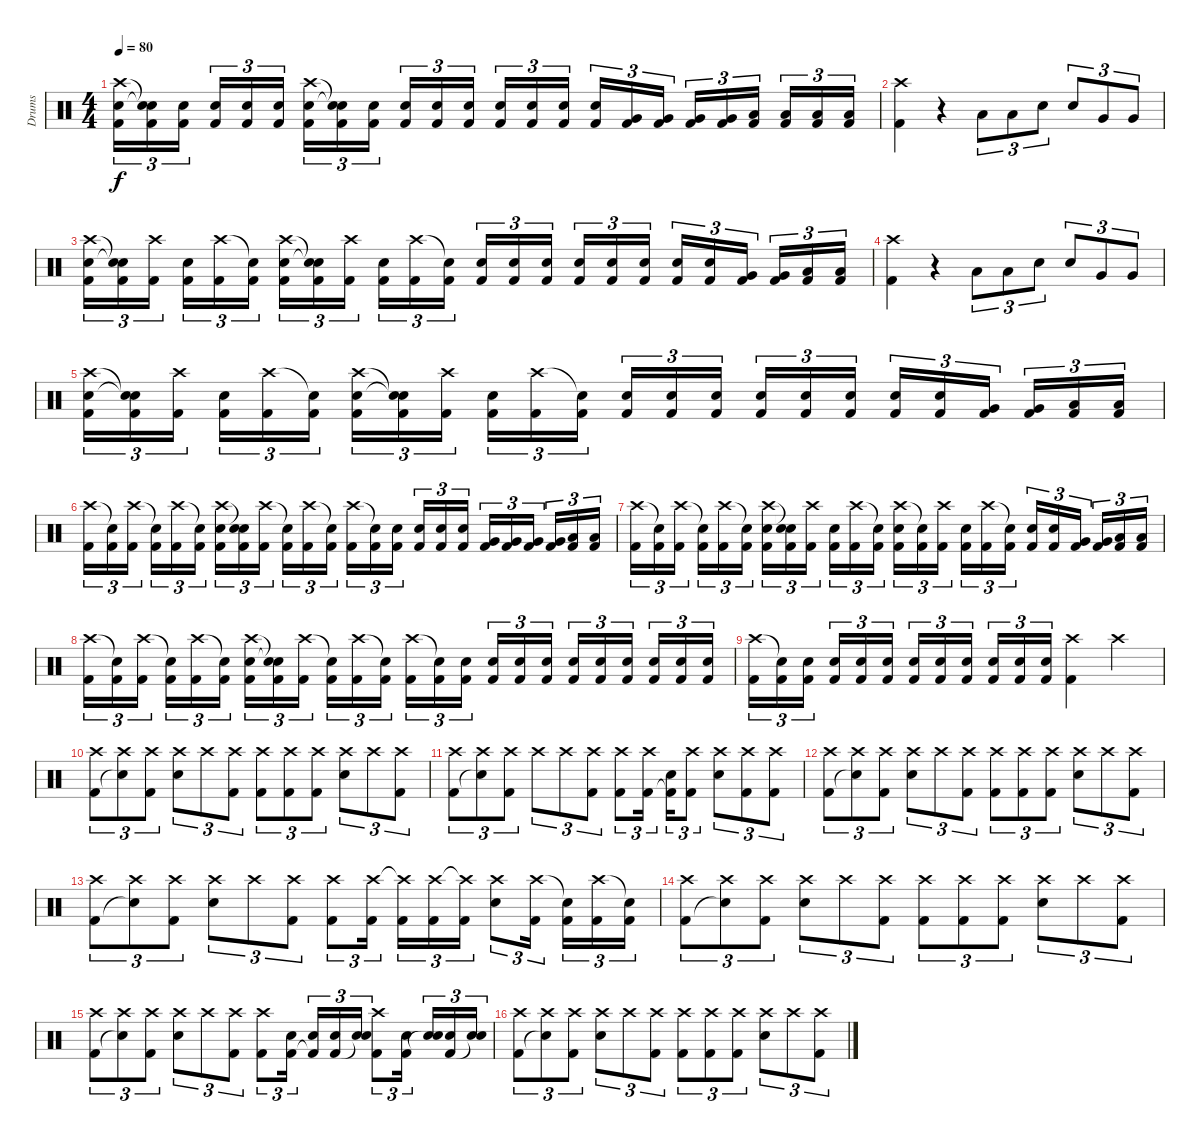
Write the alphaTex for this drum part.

\track ("Drums" "Drums") {instrument percussion}
\staff {score}
\articulation defaults
\ts (4 4)
\tempo 80
\clef neutral
\ks c
("Crash high (hit)" "Snare (hit) 2" "Kick (hit) 2").16{tu (3 2) dy f} ("Snare (hit)"{t} "Snare (hit)"{t} "Kick (hit) 2").16{tu (3 2)} ("Snare (hit) 2" "Kick (hit) 2").16{tu (3 2)} ("Snare (hit) 2" "Kick (hit) 2").16{tu (3 2)} ("Snare (hit) 2" "Kick (hit) 2").16{tu (3 2)} ("Snare (hit) 2" "Kick (hit) 2").16{tu (3 2)} ("Crash high (hit)" "Snare (hit) 2" "Kick (hit) 2").16{tu (3 2)} ("Snare (hit)"{t} "Snare (hit)"{t} "Kick (hit) 2").16{tu (3 2)} ("Snare (hit) 2" "Kick (hit) 2").16{tu (3 2)} ("Snare (hit) 2" "Kick (hit) 2").16{tu (3 2)} ("Snare (hit) 2" "Kick (hit) 2").16{tu (3 2)} ("Snare (hit) 2" "Kick (hit) 2").16{tu (3 2)} ("Snare (hit) 2" "Kick (hit) 2").16{tu (3 2)} ("Snare (hit) 2" "Kick (hit) 2").16{tu (3 2)} ("Snare (hit) 2" "Kick (hit) 2").16{tu (3 2)} ("Snare (hit) 2" "Kick (hit) 2").16{tu (3 2)} ("Very Low Tom (hit)" "Kick (hit) 2").16{tu (3 2)} ("Very Low Tom (hit)" "Kick (hit) 2").16{tu (3 2)} ("Very Low Tom (hit)" "Kick (hit) 2").16{tu (3 2)} ("Very Low Tom (hit)" "Kick (hit) 2").16{tu (3 2)} ("Low Floor Tom (hit)" "Kick (hit) 2").16{tu (3 2)} ("Low Floor Tom (hit)" "Kick (hit) 2").16{tu (3 2)} ("Low Floor Tom (hit)" "Kick (hit) 2").16{tu (3 2)} ("Low Floor Tom (hit)" "Kick (hit) 2").16{tu (3 2)} |
("Crash high (hit)" "Kick (hit) 2").4 r.4 "Low Tom (hit)".8{tu (3 2)} "Low Tom (hit)".8{tu (3 2)} "Snare (hit) 2".8{tu (3 2)} "Snare (hit) 2".8{tu (3 2)} "Very Low Tom (hit)".8{tu (3 2)} "Very Low Tom (hit)".8{tu (3 2)} |
("Crash high (hit)" "Snare (hit) 2" "Kick (hit) 2").16{tu (3 2)} ("Snare (hit)"{t} "Snare (hit)"{t} "Kick (hit) 2").16{tu (3 2)} ("Crash high (hit)" "Kick (hit) 2").16{tu (3 2)} ("Snare (hit) 2" "Kick (hit) 2").16{tu (3 2)} ("Crash high (hit)" "Kick (hit) 2").16{tu (3 2)} ("Snare (hit)"{t} "Kick (hit) 2").16{tu (3 2)} ("Crash high (hit)" "Snare (hit) 2" "Kick (hit) 2").16{tu (3 2)} ("Snare (hit)"{t} "Snare (hit)"{t} "Kick (hit) 2").16{tu (3 2)} ("Crash high (hit)" "Kick (hit) 2").16{tu (3 2)} ("Snare (hit) 2" "Kick (hit) 2").16{tu (3 2)} ("Crash high (hit)" "Kick (hit) 2").16{tu (3 2)} ("Snare (hit)"{t} "Kick (hit) 2").16{tu (3 2)} ("Snare (hit) 2" "Kick (hit) 2").16{tu (3 2)} ("Snare (hit) 2" "Kick (hit) 2").16{tu (3 2)} ("Snare (hit) 2" "Kick (hit) 2").16{tu (3 2)} ("Snare (hit) 2" "Kick (hit) 2").16{tu (3 2)} ("Snare (hit) 2" "Kick (hit) 2").16{tu (3 2)} ("Snare (hit) 2" "Kick (hit) 2").16{tu (3 2)} ("Snare (hit) 2" "Kick (hit) 2").16{tu (3 2)} ("Snare (hit) 2" "Kick (hit) 2").16{tu (3 2)} ("Very Low Tom (hit)" "Kick (hit) 2").16{tu (3 2)} ("Very Low Tom (hit)" "Kick (hit) 2").16{tu (3 2)} ("Low Floor Tom (hit)" "Kick (hit) 2").16{tu (3 2)} ("Low Floor Tom (hit)" "Kick (hit) 2").16{tu (3 2)} |
("Crash high (hit)" "Kick (hit) 2").4 r.4 "Low Tom (hit)".8{tu (3 2)} "Low Tom (hit)".8{tu (3 2)} "Snare (hit) 2".8{tu (3 2)} "Snare (hit) 2".8{tu (3 2)} "Very Low Tom (hit)".8{tu (3 2)} "Very Low Tom (hit)".8{tu (3 2)} |
("Crash high (hit)" "Snare (hit) 2" "Kick (hit) 2").16{tu (3 2)} ("Snare (hit)"{t} "Snare (hit)"{t} "Kick (hit) 2").16{tu (3 2)} ("Crash high (hit)" "Kick (hit) 2").16{tu (3 2)} ("Snare (hit) 2" "Kick (hit) 2").16{tu (3 2)} ("Crash high (hit)" "Kick (hit) 2").16{tu (3 2)} ("Snare (hit)"{t} "Kick (hit) 2").16{tu (3 2)} ("Crash high (hit)" "Snare (hit) 2" "Kick (hit) 2").16{tu (3 2)} ("Snare (hit)"{t} "Snare (hit)"{t} "Kick (hit) 2").16{tu (3 2)} ("Crash high (hit)" "Kick (hit) 2").16{tu (3 2)} ("Snare (hit) 2" "Kick (hit) 2").16{tu (3 2)} ("Crash high (hit)" "Kick (hit) 2").16{tu (3 2)} ("Snare (hit)"{t} "Kick (hit) 2").16{tu (3 2)} ("Snare (hit) 2" "Kick (hit) 2").16{tu (3 2)} ("Snare (hit) 2" "Kick (hit) 2").16{tu (3 2)} ("Snare (hit) 2" "Kick (hit) 2").16{tu (3 2)} ("Snare (hit) 2" "Kick (hit) 2").16{tu (3 2)} ("Snare (hit) 2" "Kick (hit) 2").16{tu (3 2)} ("Snare (hit) 2" "Kick (hit) 2").16{tu (3 2)} ("Snare (hit) 2" "Kick (hit) 2").16{tu (3 2)} ("Snare (hit) 2" "Kick (hit) 2").16{tu (3 2)} ("Very Low Tom (hit)" "Kick (hit) 2").16{tu (3 2)} ("Very Low Tom (hit)" "Kick (hit) 2").16{tu (3 2)} ("Low Floor Tom (hit)" "Kick (hit) 2").16{tu (3 2)} ("Low Floor Tom (hit)" "Kick (hit) 2").16{tu (3 2)} |
("Crash high (hit)" "Kick (hit) 2").16{tu (3 2)} ("Snare (hit)"{t} "Kick (hit) 2").16{tu (3 2)} ("Crash high (hit)" "Kick (hit) 2").16{tu (3 2)} ("Snare (hit)"{t} "Kick (hit) 2").16{tu (3 2)} ("Crash high (hit)" "Kick (hit) 2").16{tu (3 2)} ("Snare (hit)"{t} "Kick (hit) 2").16{tu (3 2)} ("Crash high (hit)" "Snare (hit) 2" "Kick (hit) 2").16{tu (3 2)} ("Snare (hit)"{t} "Snare (hit)"{t} "Kick (hit) 2").16{tu (3 2)} ("Crash high (hit)" "Kick (hit) 2").16{tu (3 2)} ("Snare (hit)"{t} "Kick (hit) 2").16{tu (3 2)} ("Crash high (hit)" "Kick (hit) 2").16{tu (3 2)} ("Snare (hit)"{t} "Kick (hit) 2").16{tu (3 2)} ("Crash high (hit)" "Kick (hit) 2").16{tu (3 2)} ("Snare (hit)"{t} "Kick (hit) 2").16{tu (3 2)} ("Snare (hit) 2" "Kick (hit) 2").16{tu (3 2)} ("Snare (hit) 2" "Kick (hit) 2").16{tu (3 2)} ("Snare (hit) 2" "Kick (hit) 2").16{tu (3 2)} ("Snare (hit) 2" "Kick (hit) 2").16{tu (3 2)} ("Very Low Tom (hit)" "Kick (hit) 2").16{tu (3 2)} ("Very Low Tom (hit)" "Kick (hit) 2").16{tu (3 2)} ("Very Low Tom (hit)" "Kick (hit) 2").16{tu (3 2)} ("Very Low Tom (hit)" "Kick (hit) 2").16{tu (3 2)} ("Low Floor Tom (hit)" "Kick (hit) 2").16{tu (3 2)} ("Low Floor Tom (hit)" "Kick (hit) 2").16{tu (3 2)} |
("Crash high (hit)" "Kick (hit) 2").16{tu (3 2)} ("Snare (hit)"{t} "Kick (hit) 2").16{tu (3 2)} ("Crash high (hit)" "Kick (hit) 2").16{tu (3 2)} ("Snare (hit)"{t} "Kick (hit) 2").16{tu (3 2)} ("Crash high (hit)" "Kick (hit) 2").16{tu (3 2)} ("Snare (hit)"{t} "Kick (hit) 2").16{tu (3 2)} ("Crash high (hit)" "Snare (hit) 2" "Kick (hit) 2").16{tu (3 2)} ("Snare (hit)"{t} "Snare (hit)"{t} "Kick (hit) 2").16{tu (3 2)} ("Crash high (hit)" "Kick (hit) 2").16{tu (3 2)} ("Snare (hit) 2" "Kick (hit) 2").16{tu (3 2)} ("Crash high (hit)" "Kick (hit) 2").16{tu (3 2)} ("Snare (hit)"{t} "Kick (hit) 2").16{tu (3 2)} ("Crash high (hit)" "Snare (hit) 2" "Kick (hit) 2").16{tu (3 2)} ("Snare (hit)"{t} "Kick (hit) 2").16{tu (3 2)} ("Crash high (hit)" "Kick (hit) 2").16{tu (3 2)} ("Snare (hit) 2" "Kick (hit) 2").16{tu (3 2)} ("Crash high (hit)" "Kick (hit) 2").16{tu (3 2)} ("Snare (hit)"{t} "Kick (hit) 2").16{tu (3 2)} ("Snare (hit) 2" "Kick (hit) 2").16{tu (3 2)} ("Snare (hit) 2" "Kick (hit) 2").16{tu (3 2)} ("Very Low Tom (hit)" "Kick (hit) 2").16{tu (3 2)} ("Very Low Tom (hit)" "Kick (hit) 2").16{tu (3 2)} ("Low Floor Tom (hit)" "Kick (hit) 2").16{tu (3 2)} ("Low Floor Tom (hit)" "Kick (hit) 2").16{tu (3 2)} |
("Crash high (hit)" "Kick (hit) 2").16{tu (3 2)} ("Snare (hit)"{t} "Kick (hit) 2").16{tu (3 2)} ("Crash high (hit)" "Kick (hit) 2").16{tu (3 2)} ("Snare (hit)"{t} "Kick (hit) 2").16{tu (3 2)} ("Crash high (hit)" "Kick (hit) 2").16{tu (3 2)} ("Snare (hit)"{t} "Kick (hit) 2").16{tu (3 2)} ("Crash high (hit)" "Snare (hit) 2" "Kick (hit) 2").16{tu (3 2)} ("Snare (hit)"{t} "Snare (hit)"{t} "Kick (hit) 2").16{tu (3 2)} ("Crash high (hit)" "Kick (hit) 2").16{tu (3 2)} ("Snare (hit)"{t} "Kick (hit) 2").16{tu (3 2)} ("Crash high (hit)" "Kick (hit) 2").16{tu (3 2)} ("Snare (hit)"{t} "Kick (hit) 2").16{tu (3 2)} ("Crash high (hit)" "Kick (hit) 2").16{tu (3 2)} ("Snare (hit)"{t} "Kick (hit) 2").16{tu (3 2)} ("Snare (hit) 2" "Kick (hit) 2").16{tu (3 2)} ("Snare (hit) 2" "Kick (hit) 2").16{tu (3 2)} ("Snare (hit) 2" "Kick (hit) 2").16{tu (3 2)} ("Snare (hit) 2" "Kick (hit) 2").16{tu (3 2)} ("Snare (hit) 2" "Kick (hit) 2").16{tu (3 2)} ("Snare (hit) 2" "Kick (hit) 2").16{tu (3 2)} ("Snare (hit) 2" "Kick (hit) 2").16{tu (3 2)} ("Snare (hit) 2" "Kick (hit) 2").16{tu (3 2)} ("Snare (hit) 2" "Kick (hit) 2").16{tu (3 2)} ("Snare (hit) 2" "Kick (hit) 2").16{tu (3 2)} |
("Crash high (hit)" "Kick (hit) 2").16{tu (3 2)} ("Snare (hit)"{t} "Kick (hit) 2").16{tu (3 2)} ("Snare (hit) 2" "Kick (hit) 2").16{tu (3 2)} ("Snare (hit) 2" "Kick (hit) 2").16{tu (3 2)} ("Snare (hit) 2" "Kick (hit) 2").16{tu (3 2)} ("Snare (hit) 2" "Kick (hit) 2").16{tu (3 2)} ("Snare (hit) 2" "Kick (hit) 2").16{tu (3 2)} ("Snare (hit) 2" "Kick (hit) 2").16{tu (3 2)} ("Snare (hit) 2" "Kick (hit) 2").16{tu (3 2)} ("Snare (hit) 2" "Kick (hit) 2").16{tu (3 2)} ("Snare (hit) 2" "Kick (hit) 2").16{tu (3 2)} ("Snare (hit) 2" "Kick (hit) 2").16{tu (3 2)} ("Crash high (hit)" "Kick (hit) 2").4 "Crash high (hit)".4 |
("Crash high (hit)" "Kick (hit) 2").8{tu (3 2)} ("Crash high (hit)" "Snare (hit)"{t}).8{tu (3 2)} ("Crash high (hit)" "Kick (hit) 2").8{tu (3 2)} ("Crash high (hit)" "Snare (hit) 2").8{tu (3 2)} "Crash high (hit)".8{tu (3 2)} ("Crash high (hit)" "Kick (hit) 2").8{tu (3 2)} ("Crash high (hit)" "Kick (hit) 2").8{tu (3 2)} ("Crash high (hit)" "Kick (hit) 2").8{tu (3 2)} ("Crash high (hit)" "Kick (hit) 2").8{tu (3 2)} ("Crash high (hit)" "Snare (hit) 2").8{tu (3 2)} "Crash high (hit)".8{tu (3 2)} ("Crash high (hit)" "Kick (hit) 2").8{tu (3 2)} |
("Crash high (hit)" "Kick (hit) 2").8{tu (3 2)} ("Crash high (hit)" "Snare (hit)"{t}).8{tu (3 2)} ("Crash high (hit)" "Kick (hit) 2").8{tu (3 2)} "Crash high (hit)".8{tu (3 2)} "Crash high (hit)".8{tu (3 2)} ("Crash high (hit)" "Kick (hit) 2").8{tu (3 2)} ("Crash high (hit)" "Kick (hit) 2").8{tu (3 2)} ("Crash high (hit)" "Kick (hit) 2").16{tu (3 2)} ("Snare (hit) 2" "Kick (hit) 2"{t}).16{tu (3 2)} ("Crash high (hit)" "Kick (hit) 2").8{tu (3 2)} ("Crash high (hit)" "Snare (hit) 2").8{tu (3 2)} ("Crash high (hit)" "Kick (hit) 2").8{tu (3 2)} ("Crash high (hit)" "Kick (hit) 2").8{tu (3 2)} |
("Crash high (hit)" "Kick (hit) 2").8{tu (3 2)} ("Crash high (hit)" "Snare (hit)"{t}).8{tu (3 2)} ("Crash high (hit)" "Kick (hit) 2").8{tu (3 2)} ("Crash high (hit)" "Snare (hit) 2").8{tu (3 2)} "Crash high (hit)".8{tu (3 2)} ("Crash high (hit)" "Kick (hit) 2").8{tu (3 2)} ("Crash high (hit)" "Kick (hit) 2").8{tu (3 2)} ("Crash high (hit)" "Kick (hit) 2").8{tu (3 2)} ("Crash high (hit)" "Kick (hit) 2").8{tu (3 2)} ("Crash high (hit)" "Snare (hit) 2").8{tu (3 2)} "Crash high (hit)".8{tu (3 2)} ("Crash high (hit)" "Kick (hit) 2").8{tu (3 2)} |
("Crash high (hit)" "Kick (hit) 2").8{tu (3 2)} ("Crash high (hit)" "Snare (hit)"{t}).8{tu (3 2)} ("Crash high (hit)" "Kick (hit) 2").8{tu (3 2)} ("Crash high (hit)" "Snare (hit) 2").8{tu (3 2)} "Crash high (hit)".8{tu (3 2)} ("Crash high (hit)" "Kick (hit) 2").8{tu (3 2)} ("Crash high (hit)" "Kick (hit) 2").8{tu (3 2)} ("Crash high (hit)" "Kick (hit) 2").16{tu (3 2)} ("Crash high (hit)"{t} "Kick (hit) 2").16{tu (3 2)} ("Crash high (hit)" "Kick (hit) 2").16{tu (3 2)} ("Crash high (hit)"{t} "Kick (hit) 2").16{tu (3 2)} ("Crash high (hit)" "Snare (hit) 2").8{tu (3 2)} ("Crash high (hit)" "Kick (hit) 2").16{tu (3 2)} ("Snare (hit)"{t} "Kick (hit) 2").16{tu (3 2)} ("Crash high (hit)" "Kick (hit) 2").16{tu (3 2)} ("Snare (hit)"{t} "Kick (hit) 2").16{tu (3 2)} |
("Crash high (hit)" "Kick (hit) 2").8{tu (3 2)} ("Crash high (hit)" "Snare (hit)"{t}).8{tu (3 2)} ("Crash high (hit)" "Kick (hit) 2").8{tu (3 2)} ("Crash high (hit)" "Snare (hit) 2").8{tu (3 2)} "Crash high (hit)".8{tu (3 2)} ("Crash high (hit)" "Kick (hit) 2").8{tu (3 2)} ("Crash high (hit)" "Kick (hit) 2").8{tu (3 2)} ("Crash high (hit)" "Kick (hit) 2").8{tu (3 2)} ("Crash high (hit)" "Kick (hit) 2").8{tu (3 2)} ("Crash high (hit)" "Snare (hit) 2").8{tu (3 2)} "Crash high (hit)".8{tu (3 2)} ("Crash high (hit)" "Kick (hit) 2").8{tu (3 2)} |
("Crash high (hit)" "Kick (hit) 2").8{tu (3 2)} ("Crash high (hit)" "Snare (hit)"{t}).8{tu (3 2)} ("Crash high (hit)" "Kick (hit) 2").8{tu (3 2)} ("Crash high (hit)" "Snare (hit) 2").8{tu (3 2)} "Crash high (hit)".8{tu (3 2)} ("Crash high (hit)" "Kick (hit) 2").8{tu (3 2)} ("Crash high (hit)" "Kick (hit) 2").8{tu (3 2)} ("Snare (hit) 2" "Kick (hit) 2").16{tu (3 2)} ("Snare (hit) 2" "Kick (hit) 2"{t}).16{tu (3 2)} ("Snare (hit) 2" "Kick (hit) 2").16{tu (3 2)} ("Snare (hit) 2" "Snare (hit)"{t}).16{tu (3 2)} ("Crash high (hit)" "Kick (hit) 2").8{tu (3 2)} ("Snare (hit) 2" "Kick (hit) 2").16{tu (3 2)} ("Snare (hit) 2" "Snare (hit)"{t}).16{tu (3 2)} ("Snare (hit) 2" "Kick (hit) 2").16{tu (3 2)} ("Snare (hit) 2" "Snare (hit)"{t}).16{tu (3 2)} |
("Crash high (hit)" "Kick (hit) 2").8{tu (3 2)} ("Crash high (hit)" "Snare (hit)"{t}).8{tu (3 2)} ("Crash high (hit)" "Kick (hit) 2").8{tu (3 2)} ("Crash high (hit)" "Snare (hit) 2").8{tu (3 2)} "Crash high (hit)".8{tu (3 2)} ("Crash high (hit)" "Kick (hit) 2").8{tu (3 2)} ("Crash high (hit)" "Kick (hit) 2").8{tu (3 2)} ("Crash high (hit)" "Kick (hit) 2").8{tu (3 2)} ("Crash high (hit)" "Kick (hit) 2").8{tu (3 2)} ("Crash high (hit)" "Snare (hit) 2").8{tu (3 2)} "Crash high (hit)".8{tu (3 2)} ("Crash high (hit)" "Kick (hit) 2").8{tu (3 2)}
